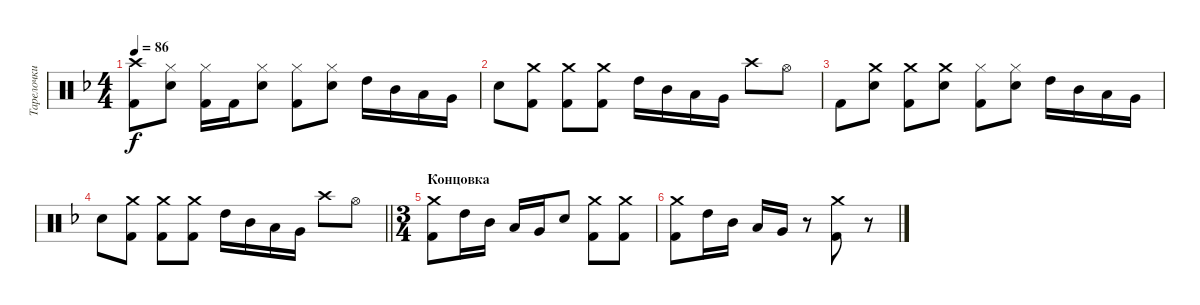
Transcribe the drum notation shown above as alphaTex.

\track ("Тарелочки" "Тарелочки") {instrument percussion}
\staff {score}
\articulation defaults
\ts (4 4)
\tempo 86
\clef neutral
\ks f
("Kick (hit) 2" "Crash high (hit)").8{dy f} ("Snare (hit) 2" "Hi-Hat (closed)").8 ("Kick (hit) 2" "Hi-Hat (closed)").16 "Kick (hit) 2".16 ("Snare (hit) 2" "Hi-Hat (closed)").8 ("Kick (hit) 2" "Hi-Hat (closed)").8 ("Snare (hit) 2" "Hi-Hat (closed)").8 "High Tom (hit)".16 "Mid Tom (hit)".16 "Low Tom (hit)".16 "Very Low Tom (hit)".16 |
"Snare (hit) 2".8 ("Kick (hit) 2" "Crash medium (hit)").8 ("Kick (hit) 2" "Crash medium (hit)").8 ("Kick (hit) 2" "Crash medium (hit)").8 "High Tom (hit)".16 "Mid Tom (hit)".16 "Low Tom (hit)".16 "Very Low Tom (hit)".16 "Crash high (hit)".8 "Hi-Hat (open)".8 |
"Kick (hit) 2".8 ("Snare (hit) 2" "Crash medium (hit)").8 ("Kick (hit) 2" "Crash medium (hit)").8 ("Snare (hit) 2" "Crash medium (hit)").8 ("Hi-Hat (closed)" "Kick (hit) 2").8 ("Hi-Hat (closed)" "Snare (hit) 2").8 "High Tom (hit)".16 "Mid Tom (hit)".16 "Low Tom (hit)".16 "Very Low Tom (hit)".16 |
\barLineRight lightlight "Snare (hit) 2".8
("Kick (hit) 2" "Crash medium (hit)").8 ("Kick (hit) 2" "Crash medium (hit)").8 ("Kick (hit) 2" "Crash medium (hit)").8 "High Tom (hit)".16 "Mid Tom (hit)".16 "Low Tom (hit)".16 "Very Low Tom (hit)".16 "Crash high (hit)".8 "Hi-Hat (open)".8 |
\ts (3 4)
\section ("" "Концовка")
("Kick (hit) 2" "Crash medium (hit)").8 "High Tom (hit)".16 "Mid Tom (hit)".16 "Low Tom (hit)".16 "Very Low Tom (hit)".16 "Snare (hit) 2".8 ("Kick (hit) 2" "Crash medium (hit)").8 ("Kick (hit) 2" "Crash medium (hit)").8 |
("Kick (hit) 2" "Crash medium (hit)").8 "High Tom (hit)".16 "Mid Tom (hit)".16 "Low Tom (hit)".16 "Very Low Tom (hit)".16 r.8 ("Kick (hit) 2" "Crash medium (hit)").8 r.8
